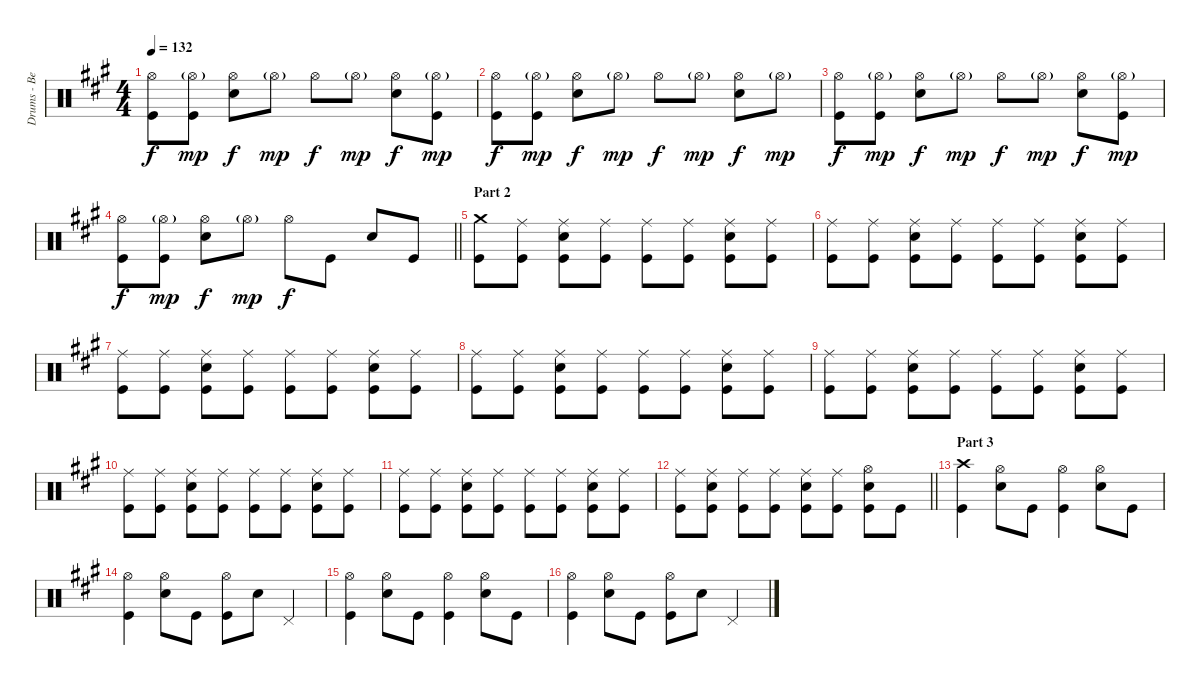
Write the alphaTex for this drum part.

\track ("Drums - Ben Johnston" "Drums - Be") {instrument percussion}
\staff {score}
\articulation defaults
\ts (4 4)
\tempo 132
\clef neutral
\ks a
("Hi-Hat (open)" "Kick (hit)").8{dy f volume 13} ("Hi-Hat (open)"{g} "Kick (hit)").8{dy mp} ("Hi-Hat (open)" "Snare (hit) 2").8{dy f} "Hi-Hat (open)"{g}.8{dy mp} "Hi-Hat (open)".8{dy f} "Hi-Hat (open)"{g}.8{dy mp} ("Hi-Hat (open)" "Snare (hit) 2").8{dy f} ("Hi-Hat (open)"{g} "Kick (hit)").8{dy mp} |
("Hi-Hat (open)" "Kick (hit)").8{dy f} ("Hi-Hat (open)"{g} "Kick (hit)").8{dy mp} ("Hi-Hat (open)" "Snare (hit) 2").8{dy f} "Hi-Hat (open)"{g}.8{dy mp} "Hi-Hat (open)".8{dy f} "Hi-Hat (open)"{g}.8{dy mp} ("Hi-Hat (open)" "Snare (hit) 2").8{dy f} "Hi-Hat (open)"{g}.8{dy mp} |
("Hi-Hat (open)" "Kick (hit)").8{dy f} ("Hi-Hat (open)"{g} "Kick (hit)").8{dy mp} ("Hi-Hat (open)" "Snare (hit) 2").8{dy f} "Hi-Hat (open)"{g}.8{dy mp} "Hi-Hat (open)".8{dy f} "Hi-Hat (open)"{g}.8{dy mp} ("Hi-Hat (open)" "Snare (hit) 2").8{dy f} ("Hi-Hat (open)"{g} "Kick (hit)").8{dy mp} |
\barLineRight lightlight
("Hi-Hat (open)" "Kick (hit)").8{dy f} ("Hi-Hat (open)"{g} "Kick (hit)").8{dy mp} ("Hi-Hat (open)" "Snare (hit) 2").8{dy f} "Hi-Hat (open)"{g}.8{dy mp} "Hi-Hat (open)".8{dy f} "Kick (hit)".8 "Snare (hit) 2".8 "Kick (hit)".8 |
\section ("" "Part 2")
("Crash medium (hit)" "Kick (hit)").8{volume 11} ("Ride (middle)" "Kick (hit)").8 ("Ride (middle)" "Snare (hit) 2" "Kick (hit)").8 ("Ride (middle)" "Kick (hit)").8 ("Ride (middle)" "Kick (hit)").8 ("Ride (middle)" "Kick (hit)").8 ("Ride (middle)" "Snare (hit) 2" "Kick (hit)").8 ("Ride (middle)" "Kick (hit)").8 |
("Ride (middle)" "Kick (hit)").8 ("Ride (middle)" "Kick (hit)").8 ("Ride (middle)" "Snare (hit) 2" "Kick (hit)").8 ("Ride (middle)" "Kick (hit)").8 ("Ride (middle)" "Kick (hit)").8 ("Ride (middle)" "Kick (hit)").8 ("Ride (middle)" "Snare (hit) 2" "Kick (hit)").8 ("Ride (middle)" "Kick (hit)").8 |
("Ride (middle)" "Kick (hit)").8 ("Ride (middle)" "Kick (hit)").8 ("Ride (middle)" "Snare (hit) 2" "Kick (hit)").8 ("Ride (middle)" "Kick (hit)").8 ("Ride (middle)" "Kick (hit)").8 ("Ride (middle)" "Kick (hit)").8 ("Ride (middle)" "Snare (hit) 2" "Kick (hit)").8 ("Ride (middle)" "Kick (hit)").8 |
("Ride (middle)" "Kick (hit)").8 ("Ride (middle)" "Kick (hit)").8 ("Ride (middle)" "Snare (hit) 2" "Kick (hit)").8 ("Ride (middle)" "Kick (hit)").8 ("Ride (middle)" "Kick (hit)").8 ("Ride (middle)" "Kick (hit)").8 ("Ride (middle)" "Snare (hit) 2" "Kick (hit)").8 ("Ride (middle)" "Kick (hit)").8 |
("Ride (middle)" "Kick (hit)").8 ("Ride (middle)" "Kick (hit)").8 ("Ride (middle)" "Snare (hit) 2" "Kick (hit)").8 ("Ride (middle)" "Kick (hit)").8 ("Ride (middle)" "Kick (hit)").8 ("Ride (middle)" "Kick (hit)").8 ("Ride (middle)" "Snare (hit) 2" "Kick (hit)").8 ("Ride (middle)" "Kick (hit)").8 |
("Ride (middle)" "Kick (hit)").8 ("Ride (middle)" "Kick (hit)").8 ("Ride (middle)" "Snare (hit) 2" "Kick (hit)").8 ("Ride (middle)" "Kick (hit)").8 ("Ride (middle)" "Kick (hit)").8 ("Ride (middle)" "Kick (hit)").8 ("Ride (middle)" "Snare (hit) 2" "Kick (hit)").8 ("Ride (middle)" "Kick (hit)").8 |
("Ride (middle)" "Kick (hit)").8 ("Ride (middle)" "Kick (hit)").8 ("Ride (middle)" "Snare (hit) 2" "Kick (hit)").8 ("Ride (middle)" "Kick (hit)").8 ("Ride (middle)" "Kick (hit)").8 ("Ride (middle)" "Kick (hit)").8 ("Ride (middle)" "Snare (hit) 2" "Kick (hit)").8 ("Ride (middle)" "Kick (hit)").8 |
\barLineRight lightlight
("Ride (middle)" "Kick (hit)").8 ("Ride (middle)" "Snare (hit) 2" "Kick (hit)").8 ("Ride (middle)" "Kick (hit)").8 ("Ride (middle)" "Kick (hit)").8 ("Ride (middle)" "Snare (hit) 2" "Kick (hit)").8 ("Ride (middle)" "Kick (hit)").8 ("Hi-Hat (open)" "Snare (hit) 2" "Kick (hit)").8 "Kick (hit)".8 |
\section ("" "Part 3")
("Crash high (hit)" "Kick (hit)").4{volume 13} ("Hi-Hat (open)" "Snare (hit) 2").8 "Kick (hit)".8 ("Hi-Hat (open)" "Kick (hit)").4 ("Hi-Hat (open)" "Snare (hit) 2").8 "Kick (hit)".8 |
("Hi-Hat (open)" "Kick (hit)").4 ("Hi-Hat (open)" "Snare (hit) 2").8 "Kick (hit)".8 ("Hi-Hat (open)" "Kick (hit)").8 "Snare (hit) 2".8 "Pedal Hi-Hat (hit)".4 |
("Hi-Hat (open)" "Kick (hit)").4 ("Hi-Hat (open)" "Snare (hit) 2").8 "Kick (hit)".8 ("Hi-Hat (open)" "Kick (hit)").4 ("Hi-Hat (open)" "Snare (hit) 2").8 "Kick (hit)".8 |
("Hi-Hat (open)" "Kick (hit)").4 ("Hi-Hat (open)" "Snare (hit) 2").8 "Kick (hit)".8 ("Hi-Hat (open)" "Kick (hit)").8 "Snare (hit) 2".8 "Pedal Hi-Hat (hit)".4
